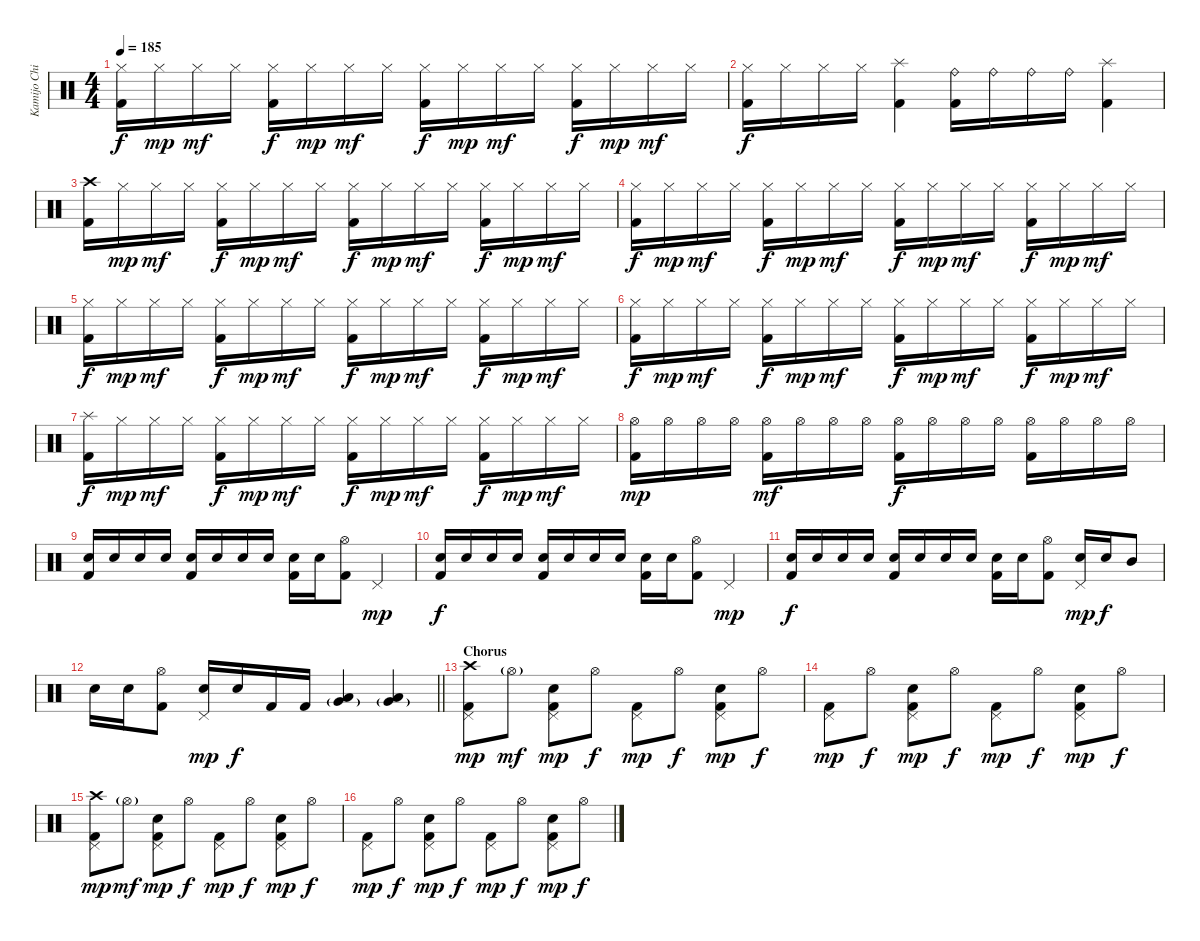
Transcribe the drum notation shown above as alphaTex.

\track ("Kamijo Chihiro" "Kamijo Chi") {instrument percussion}
\staff {score}
\articulation defaults
\ts (4 4)
\tempo 185
\clef neutral
\ks c
("Hi-Hat (closed)" "Kick (hit) 2").16{dy f} "Hi-Hat (closed)".16{dy mp} "Hi-Hat (closed)".16{dy mf} "Hi-Hat (closed)".16 ("Hi-Hat (closed)" "Kick (hit) 2").16{dy f} "Hi-Hat (closed)".16{dy mp} "Hi-Hat (closed)".16{dy mf} "Hi-Hat (closed)".16 ("Hi-Hat (closed)" "Kick (hit) 2").16{dy f} "Hi-Hat (closed)".16{dy mp} "Hi-Hat (closed)".16{dy mf} "Hi-Hat (closed)".16 ("Hi-Hat (closed)" "Kick (hit) 2").16{dy f} "Hi-Hat (closed)".16{dy mp} "Hi-Hat (closed)".16{dy mf} "Hi-Hat (closed)".16 |
("Hi-Hat (closed)" "Kick (hit) 2").16{dy f} "Hi-Hat (closed)".16 "Hi-Hat (closed)".16 "Hi-Hat (closed)".16 ("Splash (hit)" "Kick (hit) 2").4 ("Ride (bell)" "Kick (hit) 2").16 "Ride (bell)".16 "Ride (bell)".16 "Ride (bell)".16 ("Splash (hit)" "Kick (hit) 2").4 |
("Crash high (hit)" "Kick (hit) 2").16 "Hi-Hat (closed)".16{dy mp} "Hi-Hat (closed)".16{dy mf} "Hi-Hat (closed)".16 ("Hi-Hat (closed)" "Kick (hit) 2").16{dy f} "Hi-Hat (closed)".16{dy mp} "Hi-Hat (closed)".16{dy mf} "Hi-Hat (closed)".16 ("Hi-Hat (closed)" "Kick (hit) 2").16{dy f} "Hi-Hat (closed)".16{dy mp} "Hi-Hat (closed)".16{dy mf} "Hi-Hat (closed)".16 ("Hi-Hat (closed)" "Kick (hit) 2").16{dy f} "Hi-Hat (closed)".16{dy mp} "Hi-Hat (closed)".16{dy mf} "Hi-Hat (closed)".16 |
("Hi-Hat (closed)" "Kick (hit) 2").16{dy f} "Hi-Hat (closed)".16{dy mp} "Hi-Hat (closed)".16{dy mf} "Hi-Hat (closed)".16 ("Hi-Hat (closed)" "Kick (hit) 2").16{dy f} "Hi-Hat (closed)".16{dy mp} "Hi-Hat (closed)".16{dy mf} "Hi-Hat (closed)".16 ("Hi-Hat (closed)" "Kick (hit) 2").16{dy f} "Hi-Hat (closed)".16{dy mp} "Hi-Hat (closed)".16{dy mf} "Hi-Hat (closed)".16 ("Hi-Hat (closed)" "Kick (hit) 2").16{dy f} "Hi-Hat (closed)".16{dy mp} "Hi-Hat (closed)".16{dy mf} "Hi-Hat (closed)".16 |
("Hi-Hat (closed)" "Kick (hit) 2").16{dy f} "Hi-Hat (closed)".16{dy mp} "Hi-Hat (closed)".16{dy mf} "Hi-Hat (closed)".16 ("Hi-Hat (closed)" "Kick (hit) 2").16{dy f} "Hi-Hat (closed)".16{dy mp} "Hi-Hat (closed)".16{dy mf} "Hi-Hat (closed)".16 ("Hi-Hat (closed)" "Kick (hit) 2").16{dy f} "Hi-Hat (closed)".16{dy mp} "Hi-Hat (closed)".16{dy mf} "Hi-Hat (closed)".16 ("Hi-Hat (closed)" "Kick (hit) 2").16{dy f} "Hi-Hat (closed)".16{dy mp} "Hi-Hat (closed)".16{dy mf} "Hi-Hat (closed)".16 |
("Hi-Hat (closed)" "Kick (hit) 2").16{dy f} "Hi-Hat (closed)".16{dy mp} "Hi-Hat (closed)".16{dy mf} "Hi-Hat (closed)".16 ("Hi-Hat (closed)" "Kick (hit) 2").16{dy f} "Hi-Hat (closed)".16{dy mp} "Hi-Hat (closed)".16{dy mf} "Hi-Hat (closed)".16 ("Hi-Hat (closed)" "Kick (hit) 2").16{dy f} "Hi-Hat (closed)".16{dy mp} "Hi-Hat (closed)".16{dy mf} "Hi-Hat (closed)".16 ("Hi-Hat (closed)" "Kick (hit) 2").16{dy f} "Hi-Hat (closed)".16{dy mp} "Hi-Hat (closed)".16{dy mf} "Hi-Hat (closed)".16 |
("Splash (hit)" "Kick (hit) 2").16{dy f} "Hi-Hat (closed)".16{dy mp} "Hi-Hat (closed)".16{dy mf} "Hi-Hat (closed)".16 ("Hi-Hat (closed)" "Kick (hit) 2").16{dy f} "Hi-Hat (closed)".16{dy mp} "Hi-Hat (closed)".16{dy mf} "Hi-Hat (closed)".16 ("Hi-Hat (closed)" "Kick (hit) 2").16{dy f} "Hi-Hat (closed)".16{dy mp} "Hi-Hat (closed)".16{dy mf} "Hi-Hat (closed)".16 ("Hi-Hat (closed)" "Kick (hit) 2").16{dy f} "Hi-Hat (closed)".16{dy mp} "Hi-Hat (closed)".16{dy mf} "Hi-Hat (closed)".16 |
("Hi-Hat (open)" "Kick (hit) 2").16{dy mp} "Hi-Hat (open)".16 "Hi-Hat (open)".16 "Hi-Hat (open)".16 ("Hi-Hat (open)" "Kick (hit) 2").16{dy mf} "Hi-Hat (open)".16 "Hi-Hat (open)".16 "Hi-Hat (open)".16 ("Hi-Hat (open)" "Kick (hit) 2").16{dy f} "Hi-Hat (open)".16 "Hi-Hat (open)".16 "Hi-Hat (open)".16 ("Hi-Hat (open)" "Kick (hit) 2").16 "Hi-Hat (open)".16 "Hi-Hat (open)".16 "Hi-Hat (open)".16 |
("Snare (hit) 2" "Kick (hit) 2").16 "Snare (hit) 2".16 "Snare (hit) 2".16 "Snare (hit) 2".16 ("Snare (hit) 2" "Kick (hit) 2").16 "Snare (hit) 2".16 "Snare (hit) 2".16 "Snare (hit) 2".16 ("Snare (hit) 2" "Kick (hit) 2").16 "Snare (hit) 2".16 ("Hi-Hat (open)" "Kick (hit) 2").8 "Pedal Hi-Hat (hit)".4{dy mp} |
("Snare (hit) 2" "Kick (hit) 2").16{dy f} "Snare (hit) 2".16 "Snare (hit) 2".16 "Snare (hit) 2".16 ("Snare (hit) 2" "Kick (hit) 2").16 "Snare (hit) 2".16 "Snare (hit) 2".16 "Snare (hit) 2".16 ("Snare (hit) 2" "Kick (hit) 2").16 "Snare (hit) 2".16 ("Hi-Hat (open)" "Kick (hit) 2").8 "Pedal Hi-Hat (hit)".4{dy mp} |
("Snare (hit) 2" "Kick (hit) 2").16{dy f} "Snare (hit) 2".16 "Snare (hit) 2".16 "Snare (hit) 2".16 ("Snare (hit) 2" "Kick (hit) 2").16 "Snare (hit) 2".16 "Snare (hit) 2".16 "Snare (hit) 2".16 ("Snare (hit) 2" "Kick (hit) 2").16 "Snare (hit) 2".16 ("Hi-Hat (open)" "Kick (hit) 2").8 ("Pedal Hi-Hat (hit)" "Snare (hit) 2").16{dy mp} "Snare (hit) 2".16{dy f} "Mid Tom (hit)".8 |
\barLineRight lightlight "Snare (hit) 2".16 "Snare (hit) 2".16
("Hi-Hat (open)" "Kick (hit) 2").8 ("Pedal Hi-Hat (hit)" "Snare (hit) 2").16{dy mp} "Snare (hit) 2".16{dy f} "Kick (hit) 2".16 "Kick (hit) 2".16 ("Low Tom (hit)" "Very Low Tom (hit)"{g}).4 ("Low Tom (hit)" "Very Low Tom (hit)"{g}).4 |
\section ("" "Chorus")
("Crash high (hit)" "Pedal Hi-Hat (hit)" "Kick (hit) 2").8{dy mp} "Hi-Hat (open)"{g}.8{dy mf} ("Pedal Hi-Hat (hit)" "Snare (hit) 2" "Kick (hit) 2").8{dy mp} "Hi-Hat (open)".8{dy f} ("Pedal Hi-Hat (hit)" "Kick (hit) 2").8{dy mp} "Hi-Hat (open)".8{dy f} ("Pedal Hi-Hat (hit)" "Snare (hit) 2" "Kick (hit) 2").8{dy mp} "Hi-Hat (open)".8{dy f} |
("Pedal Hi-Hat (hit)" "Kick (hit) 2").8{dy mp} "Hi-Hat (open)".8{dy f} ("Pedal Hi-Hat (hit)" "Snare (hit) 2" "Kick (hit) 2").8{dy mp} "Hi-Hat (open)".8{dy f} ("Pedal Hi-Hat (hit)" "Kick (hit) 2").8{dy mp} "Hi-Hat (open)".8{dy f} ("Pedal Hi-Hat (hit)" "Snare (hit) 2" "Kick (hit) 2").8{dy mp} "Hi-Hat (open)".8{dy f} |
("Crash high (hit)" "Pedal Hi-Hat (hit)" "Kick (hit) 2").8{dy mp} "Hi-Hat (open)"{g}.8{dy mf} ("Pedal Hi-Hat (hit)" "Snare (hit) 2" "Kick (hit) 2").8{dy mp} "Hi-Hat (open)".8{dy f} ("Pedal Hi-Hat (hit)" "Kick (hit) 2").8{dy mp} "Hi-Hat (open)".8{dy f} ("Pedal Hi-Hat (hit)" "Snare (hit) 2" "Kick (hit) 2").8{dy mp} "Hi-Hat (open)".8{dy f} |
("Pedal Hi-Hat (hit)" "Kick (hit) 2").8{dy mp} "Hi-Hat (open)".8{dy f} ("Pedal Hi-Hat (hit)" "Snare (hit) 2" "Kick (hit) 2").8{dy mp} "Hi-Hat (open)".8{dy f} ("Pedal Hi-Hat (hit)" "Kick (hit) 2").8{dy mp} "Hi-Hat (open)".8{dy f} ("Pedal Hi-Hat (hit)" "Snare (hit) 2" "Kick (hit) 2").8{dy mp} "Hi-Hat (open)".8{dy f}
